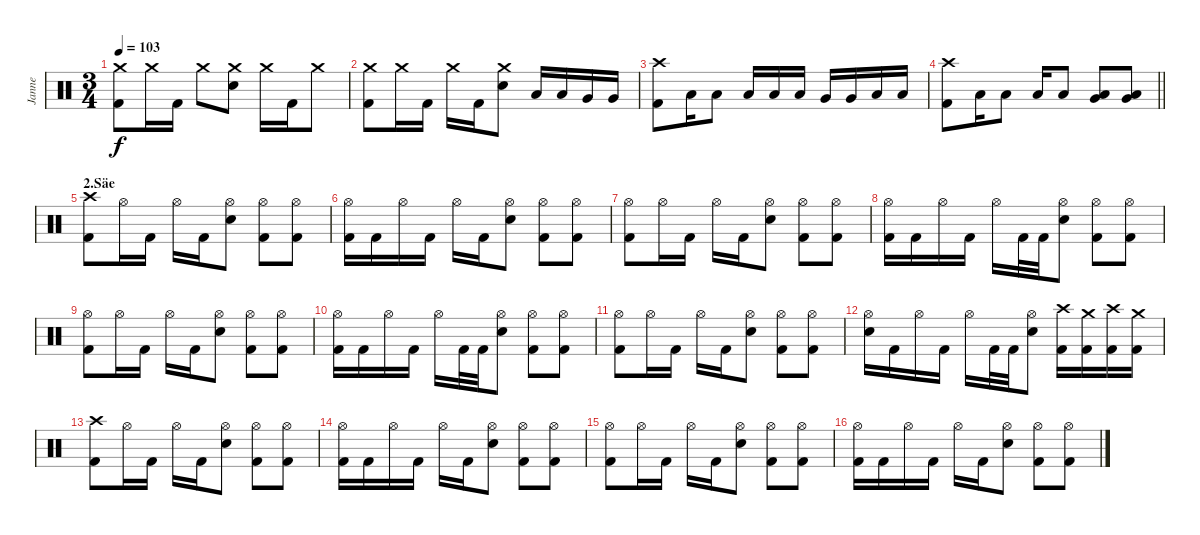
\track ("Janne" "Janne") {instrument percussion}
\staff {score}
\articulation defaults
\ts (3 4)
\tempo 103
\clef neutral
\ks c
("Crash medium (hit)" "Kick (hit) 2").8{dy f} "Crash medium (hit)".16 "Kick (hit) 2".16 "Crash medium (hit)".8 ("Crash medium (hit)" "Electric Snare (hit)").8 "Crash medium (hit)".16 "Kick (hit) 2".16 "Crash medium (hit)".8 |
("Crash medium (hit)" "Kick (hit) 2").8 "Crash medium (hit)".16 "Kick (hit) 2".16 "Crash medium (hit)".16 "Kick (hit) 2".16 ("Crash medium (hit)" "Electric Snare (hit)").8 "Low Tom (hit)".16 "Low Tom (hit)".16 "Very Low Tom (hit)".16 "Very Low Tom (hit)".16 |
("Crash high (hit)" "Kick (hit) 2").8 "Low Tom (hit)".16 "Low Tom (hit)".8 "Low Tom (hit)".16 "Low Tom (hit)".16 "Low Tom (hit)".16 "Very Low Tom (hit)".16 "Very Low Tom (hit)".16 "Low Floor Tom (hit)".16 "Low Floor Tom (hit)".16 |
\barLineRight lightlight
("Crash high (hit)" "Kick (hit) 2").8 "Low Tom (hit)".16 "Low Tom (hit)".8 "Low Tom (hit)".16 "Low Tom (hit)".8 ("Low Tom (hit)" "Very Low Tom (hit)").8 ("Very Low Tom (hit)" "Low Floor Tom (hit)").8 |
\section ("" "2.Säe")
("Crash high (hit)" "Kick (hit) 2").8 "Hi-Hat (open)".16 "Kick (hit) 2".16 "Hi-Hat (open)".16 "Kick (hit) 2".16 ("Hi-Hat (open)" "Electric Snare (hit)").8 ("Hi-Hat (open)" "Kick (hit) 2").8 ("Hi-Hat (open)" "Kick (hit) 2").8 |
("Hi-Hat (open)" "Kick (hit) 2").16 "Kick (hit) 2".16 "Hi-Hat (open)".16 "Kick (hit) 2".16 "Hi-Hat (open)".16 "Kick (hit) 2".16 ("Hi-Hat (open)" "Electric Snare (hit)").8 ("Hi-Hat (open)" "Kick (hit) 2").8 ("Hi-Hat (open)" "Kick (hit) 2").8 |
("Hi-Hat (open)" "Kick (hit) 2").8 "Hi-Hat (open)".16 "Kick (hit) 2".16 "Hi-Hat (open)".16 "Kick (hit) 2".16 ("Hi-Hat (open)" "Electric Snare (hit)").8 ("Hi-Hat (open)" "Kick (hit) 2").8 ("Hi-Hat (open)" "Kick (hit) 2").8 |
("Hi-Hat (open)" "Kick (hit) 2").16 "Kick (hit) 2".16 "Hi-Hat (open)".16 "Kick (hit) 2".16 "Hi-Hat (open)".16 "Kick (hit) 2".32 "Kick (hit) 2".32 ("Hi-Hat (open)" "Electric Snare (hit)").8 ("Hi-Hat (open)" "Kick (hit) 2").8 ("Hi-Hat (open)" "Kick (hit) 2").8 |
("Hi-Hat (open)" "Kick (hit) 2").8 "Hi-Hat (open)".16 "Kick (hit) 2".16 "Hi-Hat (open)".16 "Kick (hit) 2".16 ("Hi-Hat (open)" "Electric Snare (hit)").8 ("Hi-Hat (open)" "Kick (hit) 2").8 ("Hi-Hat (open)" "Kick (hit) 2").8 |
("Hi-Hat (open)" "Kick (hit) 2").16 "Kick (hit) 2".16 "Hi-Hat (open)".16 "Kick (hit) 2".16 "Hi-Hat (open)".16 "Kick (hit) 2".32 "Kick (hit) 2".32 ("Hi-Hat (open)" "Electric Snare (hit)").8 ("Hi-Hat (open)" "Kick (hit) 2").8 ("Hi-Hat (open)" "Kick (hit) 2").8 |
("Hi-Hat (open)" "Kick (hit) 2").8 "Hi-Hat (open)".16 "Kick (hit) 2".16 "Hi-Hat (open)".16 "Kick (hit) 2".16 ("Hi-Hat (open)" "Electric Snare (hit)").8 ("Hi-Hat (open)" "Kick (hit) 2").8 ("Hi-Hat (open)" "Kick (hit) 2").8 |
("Hi-Hat (open)" "Electric Snare (hit)").16 "Kick (hit) 2".16 "Hi-Hat (open)".16 "Kick (hit) 2".16 "Hi-Hat (open)".16 "Kick (hit) 2".32 "Kick (hit) 2".32 ("Hi-Hat (open)" "Electric Snare (hit)").8 ("Crash high (hit)" "Kick (hit) 2").16 ("Crash medium (hit)" "Kick (hit) 2").16 ("Crash high (hit)" "Kick (hit) 2").16 ("Crash medium (hit)" "Kick (hit) 2").16 |
("Crash high (hit)" "Kick (hit) 2").8 "Hi-Hat (open)".16 "Kick (hit) 2".16 "Hi-Hat (open)".16 "Kick (hit) 2".16 ("Hi-Hat (open)" "Electric Snare (hit)").8 ("Hi-Hat (open)" "Kick (hit) 2").8 ("Hi-Hat (open)" "Kick (hit) 2").8 |
("Hi-Hat (open)" "Kick (hit) 2").16 "Kick (hit) 2".16 "Hi-Hat (open)".16 "Kick (hit) 2".16 "Hi-Hat (open)".16 "Kick (hit) 2".16 ("Hi-Hat (open)" "Electric Snare (hit)").8 ("Hi-Hat (open)" "Kick (hit) 2").8 ("Hi-Hat (open)" "Kick (hit) 2").8 |
("Hi-Hat (open)" "Kick (hit) 2").8 "Hi-Hat (open)".16 "Kick (hit) 2".16 "Hi-Hat (open)".16 "Kick (hit) 2".16 ("Hi-Hat (open)" "Electric Snare (hit)").8 ("Hi-Hat (open)" "Kick (hit) 2").8 ("Hi-Hat (open)" "Kick (hit) 2").8 |
("Hi-Hat (open)" "Kick (hit) 2").16 "Kick (hit) 2".16 "Hi-Hat (open)".16 "Kick (hit) 2".16 "Hi-Hat (open)".16 "Kick (hit) 2".16 ("Hi-Hat (open)" "Electric Snare (hit)").8 ("Hi-Hat (open)" "Kick (hit) 2").8 ("Hi-Hat (open)" "Kick (hit) 2").8
